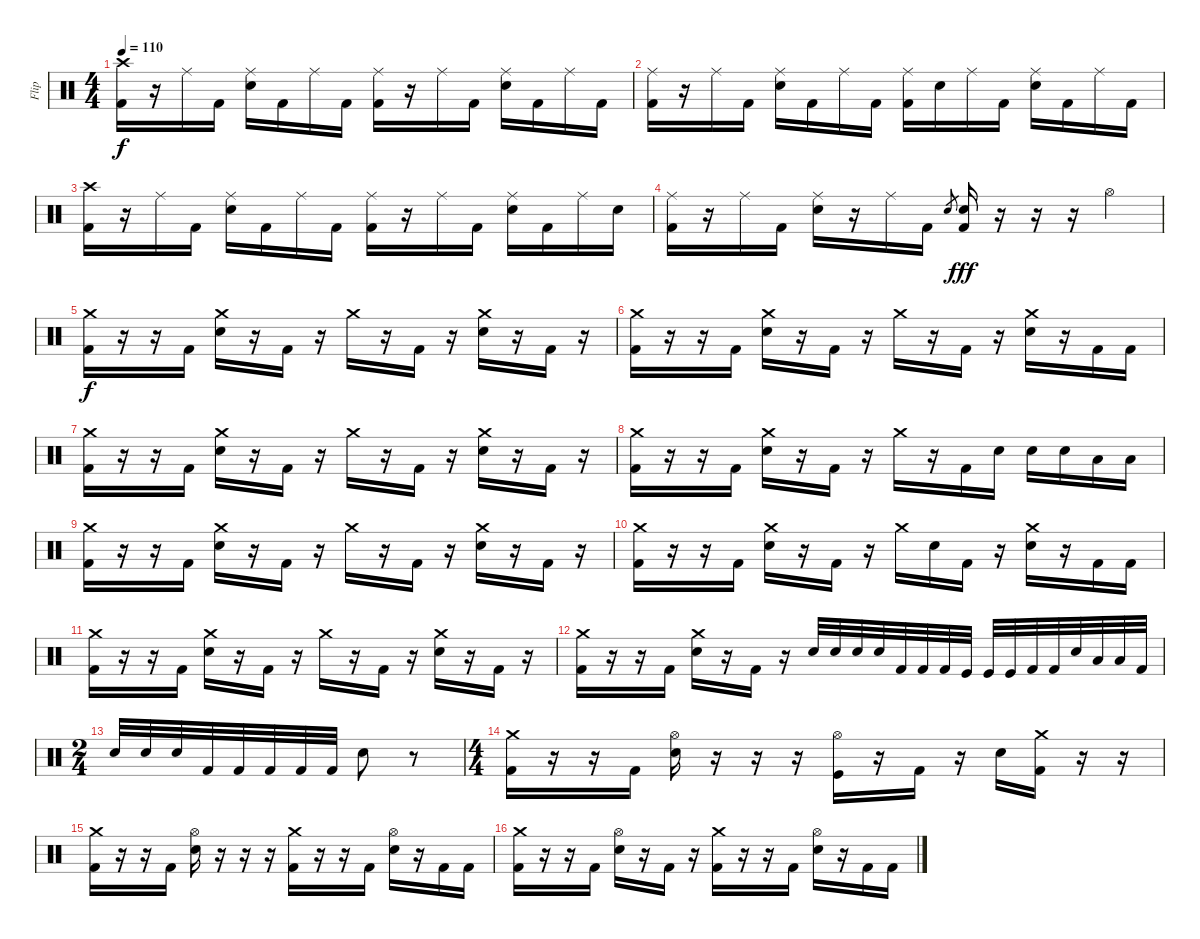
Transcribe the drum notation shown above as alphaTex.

\track ("Flip" "Flip") {instrument percussion}
\staff {score}
\articulation defaults
\ts (4 4)
\tempo 110
\clef neutral
\ks c
("Crash high (hit)" "Kick (hit) 2").16{dy f} r.16 "Ride (middle)".16 "Kick (hit) 2".16 ("Ride (middle)" "Snare (hit) 2").16 "Kick (hit) 2".16 "Ride (middle)".16 "Kick (hit) 2".16 ("Ride (middle)" "Kick (hit) 2").16 r.16 "Ride (middle)".16 "Kick (hit) 2".16 ("Ride (middle)" "Snare (hit) 2").16 "Kick (hit) 2".16 "Ride (middle)".16 "Kick (hit) 2".16 |
("Ride (middle)" "Kick (hit) 2").16 r.16 "Ride (middle)".16 "Kick (hit) 2".16 ("Ride (middle)" "Snare (hit) 2").16 "Kick (hit) 2".16 "Ride (middle)".16 "Kick (hit) 2".16 ("Ride (middle)" "Kick (hit) 2").16 "Snare (hit) 2".16 "Ride (middle)".16 "Kick (hit) 2".16 ("Ride (middle)" "Snare (hit) 2").16 "Kick (hit) 2".16 "Ride (middle)".16 "Kick (hit) 2".16 |
("Crash high (hit)" "Kick (hit) 2").16 r.16 "Ride (middle)".16 "Kick (hit) 2".16 ("Ride (middle)" "Snare (hit) 2").16 "Kick (hit) 2".16 "Ride (middle)".16 "Kick (hit) 2".16 ("Ride (middle)" "Kick (hit) 2").16 r.16 "Ride (middle)".16 "Kick (hit) 2".16 ("Ride (middle)" "Snare (hit) 2").16 "Kick (hit) 2".16 "Ride (middle)".16 "Snare (hit) 2".16 |
("Ride (middle)" "Kick (hit) 2").16 r.16 "Ride (middle)".16 "Kick (hit) 2".16 ("Ride (middle)" "Snare (hit) 2").16 r.16 "Ride (middle)".16 "Kick (hit) 2".16 "Snare (hit) 2".8{gr} ("Snare (hit) 2" "Kick (hit) 2").16{dy fff} r.16 r.16 r.16 "Hi-Hat (open)".4 |
("Crash medium (hit)" "Kick (hit) 2").16{dy f} r.16 r.16 "Kick (hit) 2".16 ("Crash medium (hit)" "Snare (hit) 2").16 r.16 "Kick (hit) 2".16 r.16 "Crash medium (hit)".16 r.16 "Kick (hit) 2".16 r.16 ("Crash medium (hit)" "Snare (hit) 2").16 r.16 "Kick (hit) 2".16 r.16 |
("Crash medium (hit)" "Kick (hit) 2").16 r.16 r.16 "Kick (hit) 2".16 ("Crash medium (hit)" "Snare (hit) 2").16 r.16 "Kick (hit) 2".16 r.16 "Crash medium (hit)".16 r.16 "Kick (hit) 2".16 r.16 ("Crash medium (hit)" "Snare (hit) 2").16 r.16 "Kick (hit) 2".16 "Kick (hit) 2".16 |
("Crash medium (hit)" "Kick (hit) 2").16 r.16 r.16 "Kick (hit) 2".16 ("Crash medium (hit)" "Snare (hit) 2").16 r.16 "Kick (hit) 2".16 r.16 "Crash medium (hit)".16 r.16 "Kick (hit) 2".16 r.16 ("Crash medium (hit)" "Snare (hit) 2").16 r.16 "Kick (hit) 2".16 r.16 |
("Crash medium (hit)" "Kick (hit) 2").16 r.16 r.16 "Kick (hit) 2".16 ("Crash medium (hit)" "Snare (hit) 2").16 r.16 "Kick (hit) 2".16 r.16 "Crash medium (hit)".16 r.16 "Kick (hit) 2".16 "Snare (hit) 2".16 "Snare (hit) 2".16 "Snare (hit) 2".16 "Low Tom (hit)".16 "Low Tom (hit)".16 |
("Crash medium (hit)" "Kick (hit) 2").16 r.16 r.16 "Kick (hit) 2".16 ("Crash medium (hit)" "Snare (hit) 2").16 r.16 "Kick (hit) 2".16 r.16 "Crash medium (hit)".16 r.16 "Kick (hit) 2".16 r.16 ("Crash medium (hit)" "Snare (hit) 2").16 r.16 "Kick (hit) 2".16 r.16 |
("Crash medium (hit)" "Kick (hit) 2").16 r.16 r.16 "Kick (hit) 2".16 ("Crash medium (hit)" "Snare (hit) 2").16 r.16 "Kick (hit) 2".16 r.16 "Crash medium (hit)".16 "Snare (hit) 2".16 "Kick (hit) 2".16 r.16 ("Crash medium (hit)" "Snare (hit) 2").16 r.16 "Kick (hit) 2".16 "Kick (hit) 2".16 |
("Crash medium (hit)" "Kick (hit) 2").16 r.16 r.16 "Kick (hit) 2".16 ("Crash medium (hit)" "Snare (hit) 2").16 r.16 "Kick (hit) 2".16 r.16 "Crash medium (hit)".16 r.16 "Kick (hit) 2".16 r.16 ("Crash medium (hit)" "Snare (hit) 2").16 r.16 "Kick (hit) 2".16 r.16 |
("Crash medium (hit)" "Kick (hit) 2").16 r.16 r.16 "Kick (hit) 2".16 ("Crash medium (hit)" "Snare (hit) 2").16 r.16 "Kick (hit) 2".16 r.16 "Snare (hit) 2".32 "Snare (hit) 2".32 "Snare (hit) 2".32 "Snare (hit) 2".32 "Kick (hit) 2".32 "Kick (hit) 2".32 "Kick (hit) 2".32 "Kick (hit)".32 "Kick (hit)".32 "Kick (hit)".32 "Kick (hit) 2".32 "Kick (hit) 2".32 "Snare (hit) 2".32 "Low Tom (hit)".32 "Low Tom (hit)".32 "Kick (hit) 2".32 |
\ts (2 4)
"Snare (hit) 2".32 "Snare (hit) 2".32 "Snare (hit) 2".32 "Kick (hit) 2".32 "Kick (hit) 2".32 "Kick (hit) 2".32 "Kick (hit) 2".32 "Kick (hit) 2".32 "Snare (hit) 2".8 r.8 |
\ts (4 4)
("Crash medium (hit)" "Kick (hit) 2").16 r.16 r.16 "Kick (hit) 2".16 ("Hi-Hat (open)" "Snare (hit) 2").16 r.16 r.16 r.16 ("Hi-Hat (open)" "Kick (hit)").16 r.16 "Kick (hit) 2".16 r.16 "Snare (hit) 2".16 ("Crash medium (hit)" "Kick (hit) 2").16 r.16 r.16 |
("Crash medium (hit)" "Kick (hit) 2").16 r.16 r.16 "Kick (hit) 2".16 ("Hi-Hat (open)" "Snare (hit) 2").16 r.16 r.16 r.16 ("Crash medium (hit)" "Kick (hit) 2").16 r.16 r.16 "Kick (hit) 2".16 ("Hi-Hat (open)" "Snare (hit) 2").16 r.16 "Kick (hit) 2".16 "Kick (hit) 2".16 |
("Crash medium (hit)" "Kick (hit) 2").16 r.16 r.16 "Kick (hit) 2".16 ("Hi-Hat (open)" "Snare (hit) 2").16 r.16 "Kick (hit) 2".16 r.16 ("Crash medium (hit)" "Kick (hit) 2").16 r.16 r.16 "Kick (hit) 2".16 ("Hi-Hat (open)" "Snare (hit) 2").16 r.16 "Kick (hit) 2".16 "Kick (hit) 2".16
